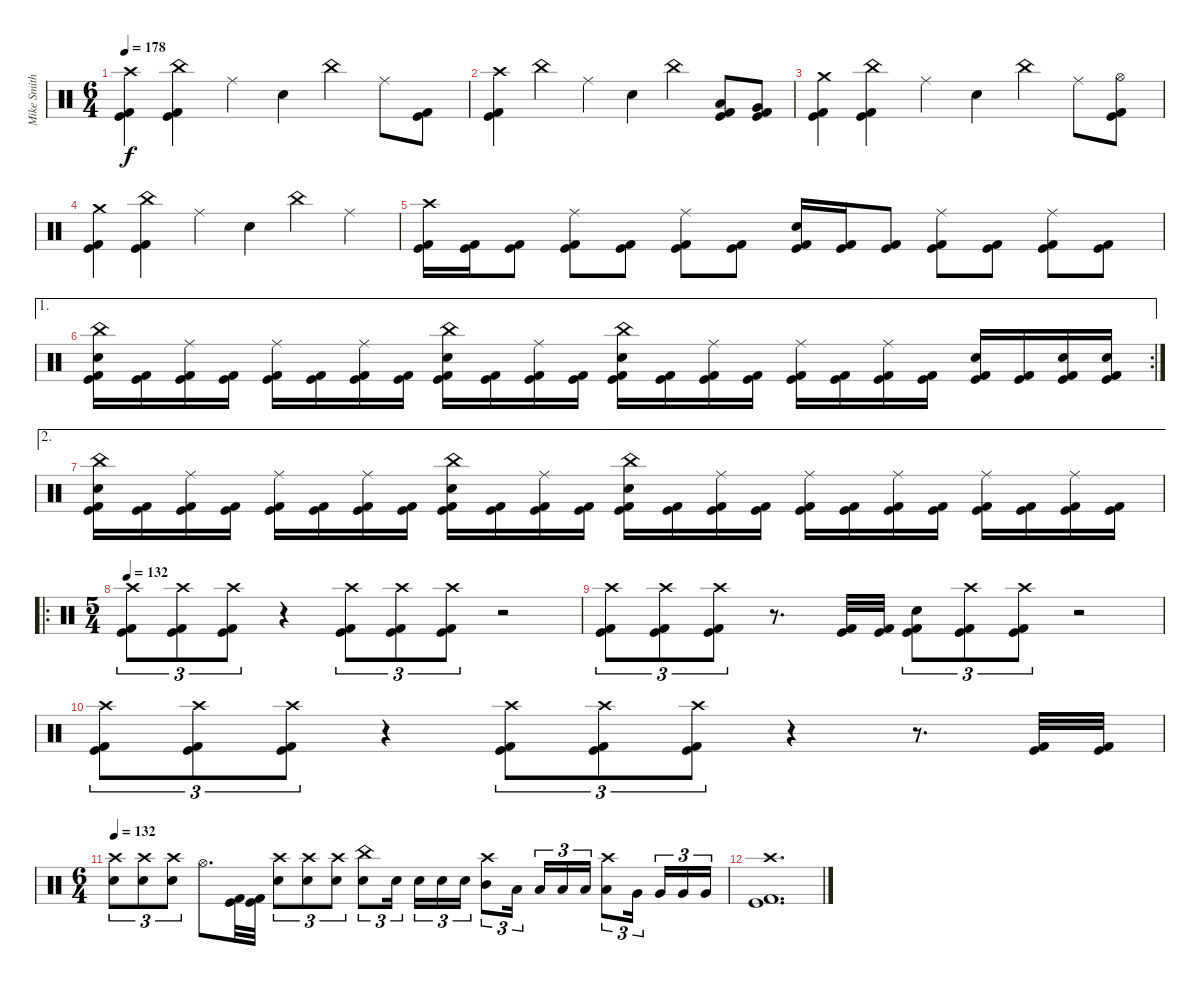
\track ("Mike Smith" "Mike Smith") {instrument percussion}
\staff {score}
\articulation defaults
\ts (6 4)
\tempo 178
\clef neutral
\ks c
("Crash high (hit)" "Kick (hit)" "Kick (hit) 2").4{dy f} ("China (hit)" "Kick (hit)" "Kick (hit) 2").4 "Ride (middle)".4 "Electric Snare (hit)".4 "China (hit)".4 "Ride (middle)".8 ("Kick (hit)" "Kick (hit) 2").8 |
("Crash high (hit)" "Kick (hit)" "Kick (hit) 2").4 "China (hit)".4 "Ride (middle)".4 "Electric Snare (hit)".4 "China (hit)".4 ("Low Tom (hit)" "Kick (hit)" "Kick (hit) 2").8 ("Very Low Tom (hit)" "Kick (hit)" "Kick (hit) 2").8 |
("Crash medium (hit)" "Kick (hit)" "Kick (hit) 2").4 ("China (hit)" "Kick (hit)" "Kick (hit) 2").4 "Ride (middle)".4 "Electric Snare (hit)".4 "China (hit)".4 "Ride (middle)".8 ("Hi-Hat (open)" "Kick (hit)" "Kick (hit) 2").8 |
("Crash medium (hit)" "Kick (hit)" "Kick (hit) 2").4 ("China (hit)" "Kick (hit)" "Kick (hit) 2").4 "Ride (middle)".4 "Electric Snare (hit)".4 "China (hit)".4 "Ride (middle)".4 |
("Crash high (hit)" "Kick (hit)" "Kick (hit) 2").16 ("Kick (hit)" "Kick (hit) 2").16 ("Kick (hit)" "Kick (hit) 2").8 ("Ride (middle)" "Kick (hit)" "Kick (hit) 2").8 ("Kick (hit)" "Kick (hit) 2").8 ("Ride (middle)" "Kick (hit)" "Kick (hit) 2").8 ("Kick (hit)" "Kick (hit) 2").8 ("Electric Snare (hit)" "Kick (hit)" "Kick (hit) 2").16 ("Kick (hit)" "Kick (hit) 2").16 ("Kick (hit)" "Kick (hit) 2").8 ("Ride (middle)" "Kick (hit)" "Kick (hit) 2").8 ("Kick (hit)" "Kick (hit) 2").8 ("Ride (middle)" "Kick (hit)" "Kick (hit) 2").8 ("Kick (hit)" "Kick (hit) 2").8 |
\ae 1
\rc 2
("China (hit)" "Electric Snare (hit)" "Kick (hit)" "Kick (hit) 2").16 ("Kick (hit)" "Kick (hit) 2").16 ("Ride (middle)" "Kick (hit)" "Kick (hit) 2").16 ("Kick (hit)" "Kick (hit) 2").16 ("Ride (middle)" "Kick (hit)" "Kick (hit) 2").16 ("Kick (hit)" "Kick (hit) 2").16 ("Ride (middle)" "Kick (hit)" "Kick (hit) 2").16 ("Kick (hit)" "Kick (hit) 2").16 ("China (hit)" "Electric Snare (hit)" "Kick (hit)" "Kick (hit) 2").16 ("Kick (hit)" "Kick (hit) 2").16 ("Ride (middle)" "Kick (hit)" "Kick (hit) 2").16 ("Kick (hit)" "Kick (hit) 2").16 ("China (hit)" "Electric Snare (hit)" "Kick (hit)" "Kick (hit) 2").16 ("Kick (hit)" "Kick (hit) 2").16 ("Ride (middle)" "Kick (hit)" "Kick (hit) 2").16 ("Kick (hit)" "Kick (hit) 2").16 ("Ride (middle)" "Kick (hit)" "Kick (hit) 2").16 ("Kick (hit)" "Kick (hit) 2").16 ("Ride (middle)" "Kick (hit)" "Kick (hit) 2").16 ("Kick (hit)" "Kick (hit) 2").16 ("Electric Snare (hit)" "Kick (hit)" "Kick (hit) 2").16 ("Kick (hit)" "Kick (hit) 2").16 ("Electric Snare (hit)" "Kick (hit)" "Kick (hit) 2").16 ("Electric Snare (hit)" "Kick (hit)" "Kick (hit) 2").16 |
\ae 2
("China (hit)" "Electric Snare (hit)" "Kick (hit)" "Kick (hit) 2").16 ("Kick (hit)" "Kick (hit) 2").16 ("Ride (middle)" "Kick (hit)" "Kick (hit) 2").16 ("Kick (hit)" "Kick (hit) 2").16 ("Ride (middle)" "Kick (hit)" "Kick (hit) 2").16 ("Kick (hit)" "Kick (hit) 2").16 ("Ride (middle)" "Kick (hit)" "Kick (hit) 2").16 ("Kick (hit)" "Kick (hit) 2").16 ("China (hit)" "Electric Snare (hit)" "Kick (hit)" "Kick (hit) 2").16 ("Kick (hit)" "Kick (hit) 2").16 ("Ride (middle)" "Kick (hit)" "Kick (hit) 2").16 ("Kick (hit)" "Kick (hit) 2").16 ("China (hit)" "Electric Snare (hit)" "Kick (hit)" "Kick (hit) 2").16 ("Kick (hit)" "Kick (hit) 2").16 ("Ride (middle)" "Kick (hit)" "Kick (hit) 2").16 ("Kick (hit)" "Kick (hit) 2").16 ("Ride (middle)" "Kick (hit)" "Kick (hit) 2").16 ("Kick (hit)" "Kick (hit) 2").16 ("Ride (middle)" "Kick (hit)" "Kick (hit) 2").16 ("Kick (hit)" "Kick (hit) 2").16 ("Ride (middle)" "Kick (hit)" "Kick (hit) 2").16 ("Kick (hit)" "Kick (hit) 2").16 ("Ride (middle)" "Kick (hit)" "Kick (hit) 2").16 ("Kick (hit)" "Kick (hit) 2").16 |
\ro
\ts (5 4)
\tempo 132
("Crash high (hit)" "Kick (hit)" "Kick (hit) 2").8{tu (3 2)} ("Crash high (hit)" "Kick (hit)" "Kick (hit) 2").8{tu (3 2)} ("Crash high (hit)" "Kick (hit)" "Kick (hit) 2").8{tu (3 2)} r.4 ("Crash high (hit)" "Kick (hit)" "Kick (hit) 2").8{tu (3 2)} ("Crash high (hit)" "Kick (hit)" "Kick (hit) 2").8{tu (3 2)} ("Crash high (hit)" "Kick (hit)" "Kick (hit) 2").8{tu (3 2)} r.2 |
("Crash high (hit)" "Kick (hit)" "Kick (hit) 2").8{tu (3 2)} ("Crash high (hit)" "Kick (hit)" "Kick (hit) 2").8{tu (3 2)} ("Crash high (hit)" "Kick (hit)" "Kick (hit) 2").8{tu (3 2)} r.8{d} ("Kick (hit)" "Kick (hit) 2").32 ("Kick (hit)" "Kick (hit) 2").32 ("Electric Snare (hit)" "Kick (hit)" "Kick (hit) 2").8{tu (3 2)} ("Crash high (hit)" "Kick (hit)" "Kick (hit) 2").8{tu (3 2)} ("Crash high (hit)" "Kick (hit)" "Kick (hit) 2").8{tu (3 2)} r.2 |
("Crash high (hit)" "Kick (hit)" "Kick (hit) 2").8{tu (3 2)} ("Crash high (hit)" "Kick (hit)" "Kick (hit) 2").8{tu (3 2)} ("Crash high (hit)" "Kick (hit)" "Kick (hit) 2").8{tu (3 2)} r.4 ("Crash high (hit)" "Kick (hit)" "Kick (hit) 2").8{tu (3 2)} ("Crash high (hit)" "Kick (hit)" "Kick (hit) 2").8{tu (3 2)} ("Crash high (hit)" "Kick (hit)" "Kick (hit) 2").8{tu (3 2)} r.4 r.8{d} ("Kick (hit)" "Kick (hit) 2").32 ("Kick (hit)" "Kick (hit) 2").32 |
\ts (6 4)
\tempo 132
("Crash high (hit)" "Electric Snare (hit)").8{tu (3 2)} ("Crash high (hit)" "Electric Snare (hit)").8{tu (3 2)} ("Crash high (hit)" "Electric Snare (hit)").8{tu (3 2)} "Hi-Hat (open)".8{d} ("Kick (hit)" "Kick (hit) 2").32 ("Kick (hit)" "Kick (hit) 2").32 ("Crash high (hit)" "Electric Snare (hit)").8{tu (3 2)} ("Crash high (hit)" "Electric Snare (hit)").8{tu (3 2)} ("Crash high (hit)" "Electric Snare (hit)").8{tu (3 2)} ("China (hit)" "Electric Snare (hit)").8{tu (3 2)} "Electric Snare (hit)".16{tu (3 2) beam splitsecondary} "Electric Snare (hit)".16{tu (3 2)} "Electric Snare (hit)".16{tu (3 2)} "Electric Snare (hit)".16{tu (3 2)} ("Crash high (hit)" "Mid Tom (hit)").8{tu (3 2)} "Low Tom (hit)".16{tu (3 2) beam splitsecondary} "Low Tom (hit)".16{tu (3 2)} "Low Tom (hit)".16{tu (3 2)} "Low Tom (hit)".16{tu (3 2)} ("Crash high (hit)" "Low Tom (hit)").8{tu (3 2)} "Very Low Tom (hit)".16{tu (3 2) beam splitsecondary} "Very Low Tom (hit)".16{tu (3 2)} "Very Low Tom (hit)".16{tu (3 2)} "Very Low Tom (hit)".16{tu (3 2)} |
("Crash high (hit)" "Kick (hit)" "Kick (hit) 2").1{d}
